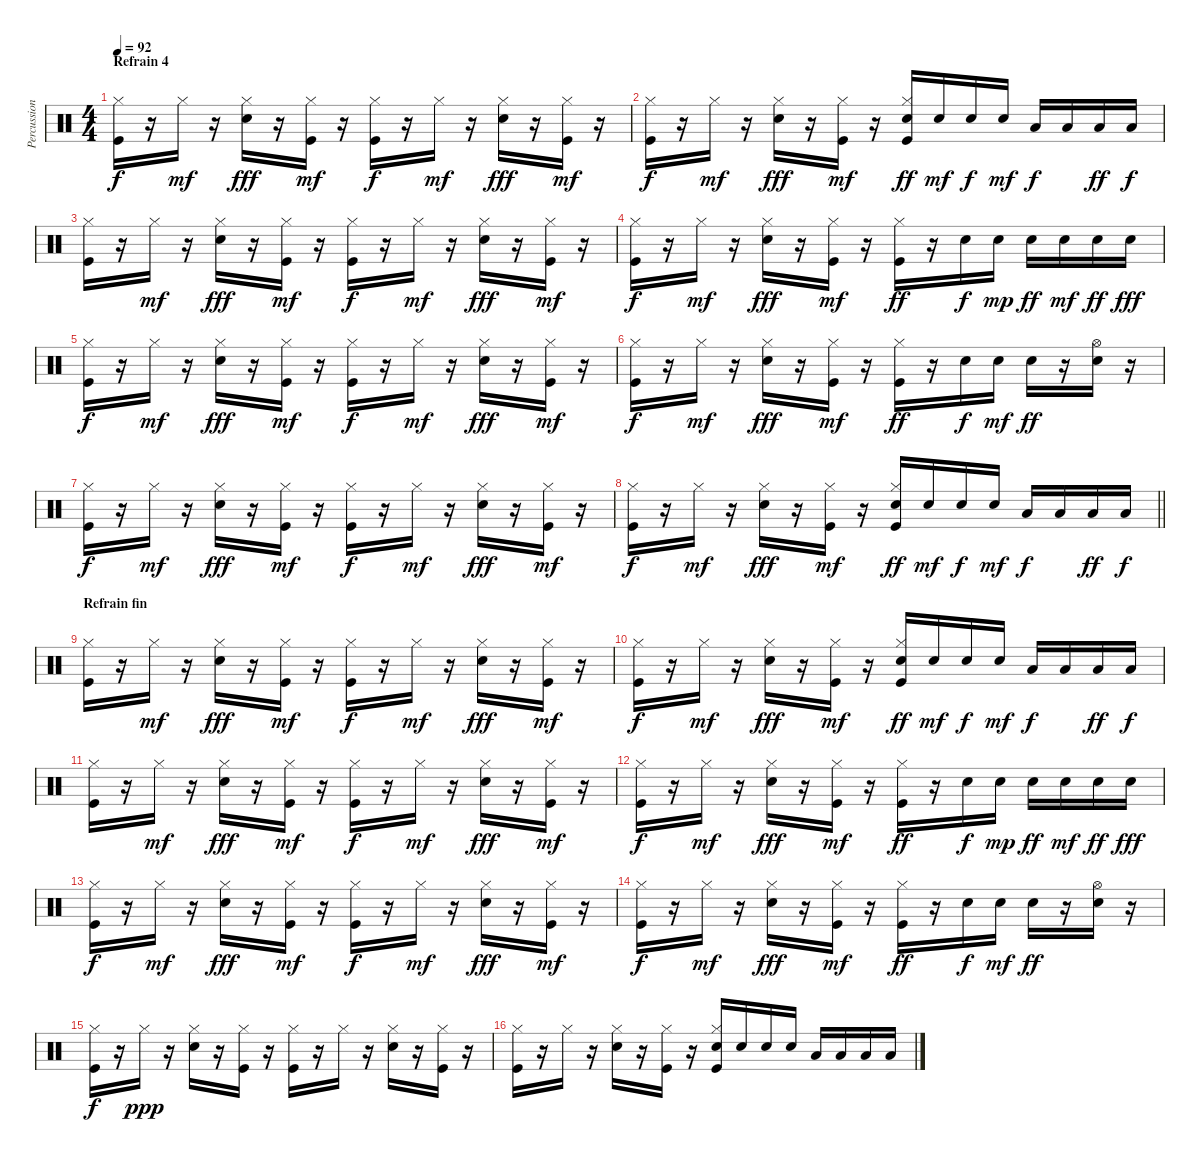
\track ("Percussions" "Percussion") {instrument percussion}
\staff {score}
\articulation defaults
\ts (4 4)
\section ("" "Refrain 4")
\tempo 92
\clef neutral
\ks c
("Kick (hit)" "Hi-Hat (closed)").16{dy f} r.16 "Hi-Hat (closed)".16{dy mf} r.16 ("Snare (hit) 2" "Hi-Hat (closed)").16{dy fff} r.16 ("Kick (hit)" "Hi-Hat (closed)").16{dy mf} r.16 ("Kick (hit)" "Hi-Hat (closed)").16{dy f} r.16 "Hi-Hat (closed)".16{dy mf} r.16 ("Snare (hit) 2" "Hi-Hat (closed)").16{dy fff} r.16 ("Kick (hit)" "Hi-Hat (closed)").16{dy mf} r.16 |
("Kick (hit)" "Hi-Hat (closed)").16{dy f} r.16 "Hi-Hat (closed)".16{dy mf} r.16 ("Snare (hit) 2" "Hi-Hat (closed)").16{dy fff} r.16 ("Kick (hit)" "Hi-Hat (closed)").16{dy mf} r.16 ("Kick (hit)" "Snare (hit) 2" "Hi-Hat (closed)").16{dy ff} "Snare (hit) 2".16{dy mf} "Snare (hit) 2".16{dy f} "Snare (hit) 2".16{dy mf} "Low Tom (hit)".16{dy f} "Low Tom (hit)".16 "Low Tom (hit)".16{dy ff} "Low Tom (hit)".16{dy f} |
("Kick (hit)" "Hi-Hat (closed)").16 r.16 "Hi-Hat (closed)".16{dy mf} r.16 ("Snare (hit) 2" "Hi-Hat (closed)").16{dy fff} r.16 ("Kick (hit)" "Hi-Hat (closed)").16{dy mf} r.16 ("Kick (hit)" "Hi-Hat (closed)").16{dy f} r.16 "Hi-Hat (closed)".16{dy mf} r.16 ("Snare (hit) 2" "Hi-Hat (closed)").16{dy fff} r.16 ("Kick (hit)" "Hi-Hat (closed)").16{dy mf} r.16 |
("Kick (hit)" "Hi-Hat (closed)").16{dy f} r.16 "Hi-Hat (closed)".16{dy mf} r.16 ("Snare (hit) 2" "Hi-Hat (closed)").16{dy fff} r.16 ("Kick (hit)" "Hi-Hat (closed)").16{dy mf} r.16 ("Kick (hit)" "Hi-Hat (closed)").16{dy ff} r.16 "Snare (hit) 2".16{dy f} "Snare (hit) 2".16{dy mp} "Snare (hit) 2".16{dy ff} "Snare (hit) 2".16{dy mf} "Snare (hit) 2".16{dy ff} "Snare (hit) 2".16{dy fff} |
("Kick (hit)" "Hi-Hat (closed)").16{dy f} r.16 "Hi-Hat (closed)".16{dy mf} r.16 ("Snare (hit) 2" "Hi-Hat (closed)").16{dy fff} r.16 ("Kick (hit)" "Hi-Hat (closed)").16{dy mf} r.16 ("Kick (hit)" "Hi-Hat (closed)").16{dy f} r.16 "Hi-Hat (closed)".16{dy mf} r.16 ("Snare (hit) 2" "Hi-Hat (closed)").16{dy fff} r.16 ("Kick (hit)" "Hi-Hat (closed)").16{dy mf} r.16 |
("Kick (hit)" "Hi-Hat (closed)").16{dy f} r.16 "Hi-Hat (closed)".16{dy mf} r.16 ("Snare (hit) 2" "Hi-Hat (closed)").16{dy fff} r.16 ("Kick (hit)" "Hi-Hat (closed)").16{dy mf} r.16 ("Kick (hit)" "Hi-Hat (closed)").16{dy ff} r.16 "Snare (hit) 2".16{dy f} "Snare (hit) 2".16{dy mf} "Snare (hit) 2".16{dy ff} r.16 ("Snare (hit) 2" "Hi-Hat (open)").16 r.16 |
("Kick (hit)" "Hi-Hat (closed)").16{dy f} r.16 "Hi-Hat (closed)".16{dy mf} r.16 ("Snare (hit) 2" "Hi-Hat (closed)").16{dy fff} r.16 ("Kick (hit)" "Hi-Hat (closed)").16{dy mf} r.16 ("Kick (hit)" "Hi-Hat (closed)").16{dy f} r.16 "Hi-Hat (closed)".16{dy mf} r.16 ("Snare (hit) 2" "Hi-Hat (closed)").16{dy fff} r.16 ("Kick (hit)" "Hi-Hat (closed)").16{dy mf} r.16 |
\barLineRight lightlight
("Kick (hit)" "Hi-Hat (closed)").16{dy f} r.16 "Hi-Hat (closed)".16{dy mf} r.16 ("Snare (hit) 2" "Hi-Hat (closed)").16{dy fff} r.16 ("Kick (hit)" "Hi-Hat (closed)").16{dy mf} r.16 ("Kick (hit)" "Snare (hit) 2" "Hi-Hat (closed)").16{dy ff} "Snare (hit) 2".16{dy mf} "Snare (hit) 2".16{dy f} "Snare (hit) 2".16{dy mf} "Low Tom (hit)".16{dy f} "Low Tom (hit)".16 "Low Tom (hit)".16{dy ff} "Low Tom (hit)".16{dy f} |
\section ("" "Refrain fin")
("Kick (hit)" "Hi-Hat (closed)").16 r.16 "Hi-Hat (closed)".16{dy mf} r.16 ("Snare (hit) 2" "Hi-Hat (closed)").16{dy fff} r.16 ("Kick (hit)" "Hi-Hat (closed)").16{dy mf} r.16 ("Kick (hit)" "Hi-Hat (closed)").16{dy f} r.16 "Hi-Hat (closed)".16{dy mf} r.16 ("Snare (hit) 2" "Hi-Hat (closed)").16{dy fff} r.16 ("Kick (hit)" "Hi-Hat (closed)").16{dy mf} r.16 |
("Kick (hit)" "Hi-Hat (closed)").16{dy f} r.16 "Hi-Hat (closed)".16{dy mf} r.16 ("Snare (hit) 2" "Hi-Hat (closed)").16{dy fff} r.16 ("Kick (hit)" "Hi-Hat (closed)").16{dy mf} r.16 ("Kick (hit)" "Snare (hit) 2" "Hi-Hat (closed)").16{dy ff} "Snare (hit) 2".16{dy mf} "Snare (hit) 2".16{dy f} "Snare (hit) 2".16{dy mf} "Low Tom (hit)".16{dy f} "Low Tom (hit)".16 "Low Tom (hit)".16{dy ff} "Low Tom (hit)".16{dy f} |
("Kick (hit)" "Hi-Hat (closed)").16 r.16 "Hi-Hat (closed)".16{dy mf} r.16 ("Snare (hit) 2" "Hi-Hat (closed)").16{dy fff} r.16 ("Kick (hit)" "Hi-Hat (closed)").16{dy mf} r.16 ("Kick (hit)" "Hi-Hat (closed)").16{dy f} r.16 "Hi-Hat (closed)".16{dy mf} r.16 ("Snare (hit) 2" "Hi-Hat (closed)").16{dy fff} r.16 ("Kick (hit)" "Hi-Hat (closed)").16{dy mf} r.16 |
("Kick (hit)" "Hi-Hat (closed)").16{dy f} r.16 "Hi-Hat (closed)".16{dy mf} r.16 ("Snare (hit) 2" "Hi-Hat (closed)").16{dy fff} r.16 ("Kick (hit)" "Hi-Hat (closed)").16{dy mf} r.16 ("Kick (hit)" "Hi-Hat (closed)").16{dy ff} r.16 "Snare (hit) 2".16{dy f} "Snare (hit) 2".16{dy mp} "Snare (hit) 2".16{dy ff} "Snare (hit) 2".16{dy mf} "Snare (hit) 2".16{dy ff} "Snare (hit) 2".16{dy fff} |
("Kick (hit)" "Hi-Hat (closed)").16{dy f} r.16 "Hi-Hat (closed)".16{dy mf} r.16 ("Snare (hit) 2" "Hi-Hat (closed)").16{dy fff} r.16 ("Kick (hit)" "Hi-Hat (closed)").16{dy mf} r.16 ("Kick (hit)" "Hi-Hat (closed)").16{dy f} r.16 "Hi-Hat (closed)".16{dy mf} r.16 ("Snare (hit) 2" "Hi-Hat (closed)").16{dy fff} r.16 ("Kick (hit)" "Hi-Hat (closed)").16{dy mf} r.16 |
("Kick (hit)" "Hi-Hat (closed)").16{dy f} r.16 "Hi-Hat (closed)".16{dy mf} r.16 ("Snare (hit) 2" "Hi-Hat (closed)").16{dy fff} r.16 ("Kick (hit)" "Hi-Hat (closed)").16{dy mf} r.16 ("Kick (hit)" "Hi-Hat (closed)").16{dy ff} r.16 "Snare (hit) 2".16{dy f} "Snare (hit) 2".16{dy mf} "Snare (hit) 2".16{dy ff} r.16 ("Snare (hit) 2" "Hi-Hat (open)").16 r.16 |
("Kick (hit)" "Hi-Hat (closed)").16{dy f} r.16 "Hi-Hat (closed)".16{dy ppp} r.16 ("Snare (hit) 2" "Hi-Hat (closed)").16 r.16 ("Kick (hit)" "Hi-Hat (closed)").16 r.16 ("Kick (hit)" "Hi-Hat (closed)").16 r.16 "Hi-Hat (closed)".16 r.16 ("Snare (hit) 2" "Hi-Hat (closed)").16 r.16 ("Kick (hit)" "Hi-Hat (closed)").16 r.16 |
("Kick (hit)" "Hi-Hat (closed)").16 r.16 "Hi-Hat (closed)".16 r.16 ("Snare (hit) 2" "Hi-Hat (closed)").16 r.16 ("Kick (hit)" "Hi-Hat (closed)").16 r.16 ("Kick (hit)" "Snare (hit) 2" "Hi-Hat (closed)").16 "Snare (hit) 2".16 "Snare (hit) 2".16 "Snare (hit) 2".16 "Low Tom (hit)".16 "Low Tom (hit)".16 "Low Tom (hit)".16 "Low Tom (hit)".16
